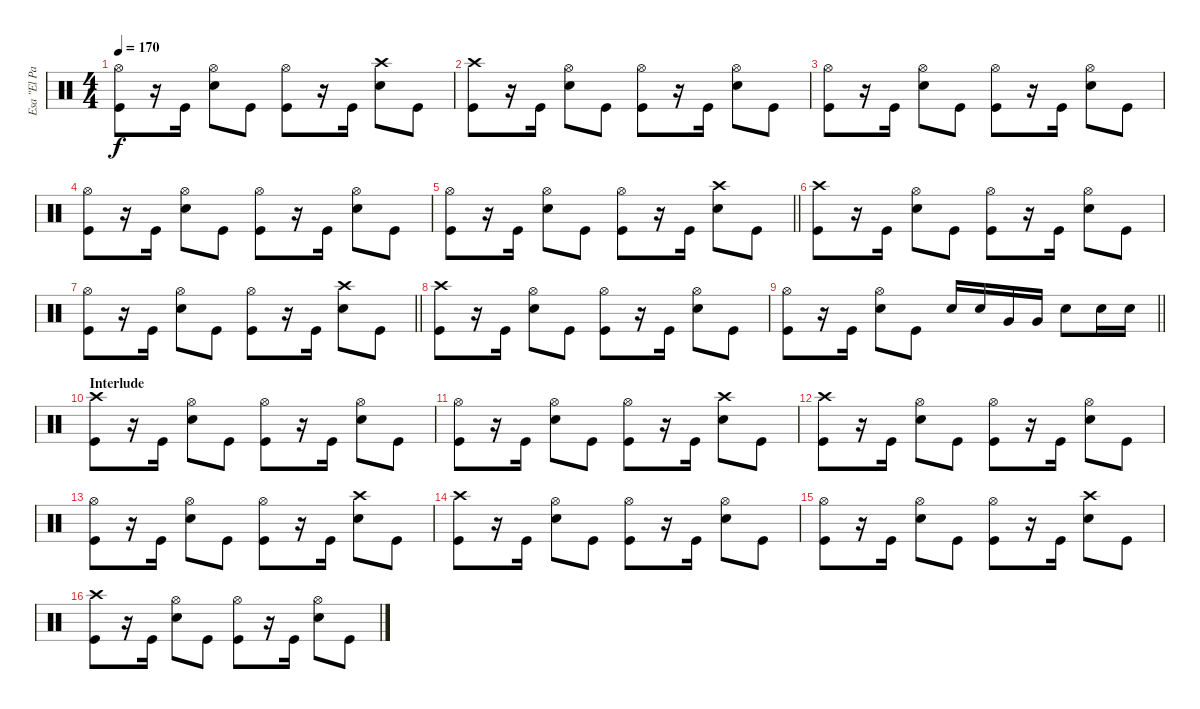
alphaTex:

\track ("Esa \"El Pasaderia\" Palosaari" "Esa \"El Pa") {instrument percussion}
\staff {score}
\articulation defaults
\ts (4 4)
\tempo 170
\clef neutral
\ks c
("Hi-Hat (open)" "Kick (hit)").8{dy f} r.16 "Kick (hit)".16 ("Hi-Hat (open)" "Snare (hit) 2").8 "Kick (hit)".8 ("Hi-Hat (open)" "Kick (hit)").8 r.16 "Kick (hit)".16 ("Crash high (hit)" "Snare (hit) 2").8 "Kick (hit)".8 |
("Crash high (hit)" "Kick (hit)").8 r.16 "Kick (hit)".16 ("Hi-Hat (open)" "Snare (hit) 2").8 "Kick (hit)".8 ("Hi-Hat (open)" "Kick (hit)").8 r.16 "Kick (hit)".16 ("Hi-Hat (open)" "Snare (hit) 2").8 "Kick (hit)".8 |
("Hi-Hat (open)" "Kick (hit)").8 r.16 "Kick (hit)".16 ("Hi-Hat (open)" "Snare (hit) 2").8 "Kick (hit)".8 ("Hi-Hat (open)" "Kick (hit)").8 r.16 "Kick (hit)".16 ("Hi-Hat (open)" "Snare (hit) 2").8 "Kick (hit)".8 |
("Hi-Hat (open)" "Kick (hit)").8 r.16 "Kick (hit)".16 ("Hi-Hat (open)" "Snare (hit) 2").8 "Kick (hit)".8 ("Hi-Hat (open)" "Kick (hit)").8 r.16 "Kick (hit)".16 ("Hi-Hat (open)" "Snare (hit) 2").8 "Kick (hit)".8 |
\barLineRight lightlight
("Hi-Hat (open)" "Kick (hit)").8 r.16 "Kick (hit)".16 ("Hi-Hat (open)" "Snare (hit) 2").8 "Kick (hit)".8 ("Hi-Hat (open)" "Kick (hit)").8 r.16 "Kick (hit)".16 ("Crash high (hit)" "Snare (hit) 2").8 "Kick (hit)".8 |
("Crash high (hit)" "Kick (hit)").8 r.16 "Kick (hit)".16 ("Hi-Hat (open)" "Snare (hit) 2").8 "Kick (hit)".8 ("Hi-Hat (open)" "Kick (hit)").8 r.16 "Kick (hit)".16 ("Hi-Hat (open)" "Snare (hit) 2").8 "Kick (hit)".8 |
\barLineRight lightlight
("Hi-Hat (open)" "Kick (hit)").8 r.16 "Kick (hit)".16 ("Hi-Hat (open)" "Snare (hit) 2").8 "Kick (hit)".8 ("Hi-Hat (open)" "Kick (hit)").8 r.16 "Kick (hit)".16 ("Crash high (hit)" "Snare (hit) 2").8 "Kick (hit)".8 |
("Crash high (hit)" "Kick (hit)").8 r.16 "Kick (hit)".16 ("Hi-Hat (open)" "Snare (hit) 2").8 "Kick (hit)".8 ("Hi-Hat (open)" "Kick (hit)").8 r.16 "Kick (hit)".16 ("Hi-Hat (open)" "Snare (hit) 2").8 "Kick (hit)".8 |
\barLineRight lightlight
("Hi-Hat (open)" "Kick (hit)").8 r.16 "Kick (hit)".16 ("Hi-Hat (open)" "Snare (hit) 2").8 "Kick (hit)".8 "Snare (hit) 2".16 "Snare (hit) 2".16 "Very Low Tom (hit)".16 "Very Low Tom (hit)".16 "Snare (hit) 2".8 "Snare (hit) 2".16 "Snare (hit) 2".16 |
\section ("" "Interlude")
("Crash high (hit)" "Kick (hit)").8 r.16 "Kick (hit)".16 ("Hi-Hat (open)" "Snare (hit) 2").8 "Kick (hit)".8 ("Hi-Hat (open)" "Kick (hit)").8 r.16 "Kick (hit)".16 ("Hi-Hat (open)" "Snare (hit) 2").8 "Kick (hit)".8 |
("Hi-Hat (open)" "Kick (hit)").8 r.16 "Kick (hit)".16 ("Hi-Hat (open)" "Snare (hit) 2").8 "Kick (hit)".8 ("Hi-Hat (open)" "Kick (hit)").8 r.16 "Kick (hit)".16 ("Crash high (hit)" "Snare (hit) 2").8 "Kick (hit)".8 |
("Crash high (hit)" "Kick (hit)").8 r.16 "Kick (hit)".16 ("Hi-Hat (open)" "Snare (hit) 2").8 "Kick (hit)".8 ("Hi-Hat (open)" "Kick (hit)").8 r.16 "Kick (hit)".16 ("Hi-Hat (open)" "Snare (hit) 2").8 "Kick (hit)".8 |
("Hi-Hat (open)" "Kick (hit)").8 r.16 "Kick (hit)".16 ("Hi-Hat (open)" "Snare (hit) 2").8 "Kick (hit)".8 ("Hi-Hat (open)" "Kick (hit)").8 r.16 "Kick (hit)".16 ("Crash high (hit)" "Snare (hit) 2").8 "Kick (hit)".8 |
("Crash high (hit)" "Kick (hit)").8 r.16 "Kick (hit)".16 ("Hi-Hat (open)" "Snare (hit) 2").8 "Kick (hit)".8 ("Hi-Hat (open)" "Kick (hit)").8 r.16 "Kick (hit)".16 ("Hi-Hat (open)" "Snare (hit) 2").8 "Kick (hit)".8 |
("Hi-Hat (open)" "Kick (hit)").8 r.16 "Kick (hit)".16 ("Hi-Hat (open)" "Snare (hit) 2").8 "Kick (hit)".8 ("Hi-Hat (open)" "Kick (hit)").8 r.16 "Kick (hit)".16 ("Crash high (hit)" "Snare (hit) 2").8 "Kick (hit)".8 |
("Crash high (hit)" "Kick (hit)").8 r.16 "Kick (hit)".16 ("Hi-Hat (open)" "Snare (hit) 2").8 "Kick (hit)".8 ("Hi-Hat (open)" "Kick (hit)").8 r.16 "Kick (hit)".16 ("Hi-Hat (open)" "Snare (hit) 2").8 "Kick (hit)".8
